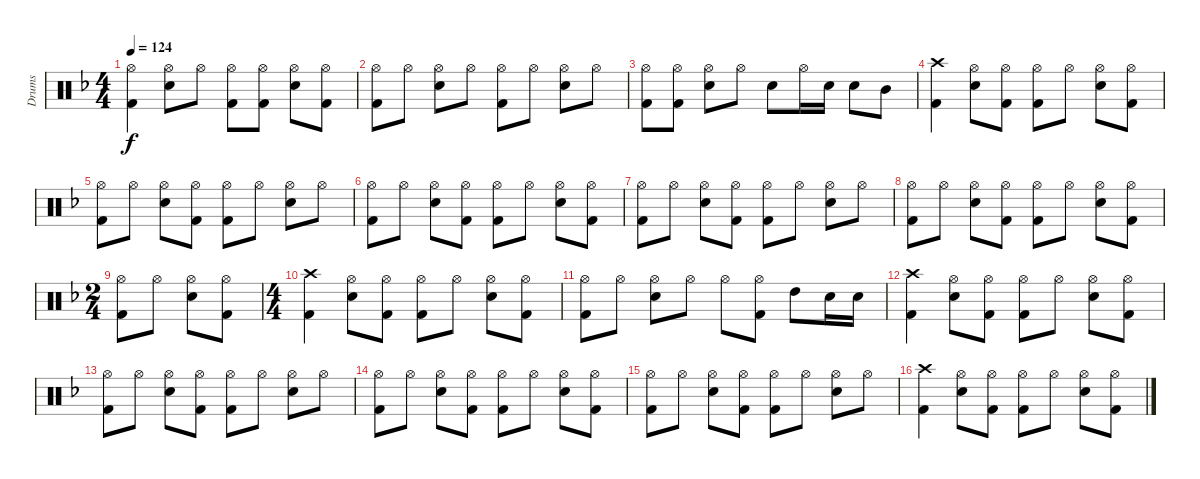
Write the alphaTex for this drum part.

\track ("Drums" "Drums") {instrument percussion}
\staff {score}
\articulation defaults
\ts (4 4)
\tempo 124
\clef neutral
\ks dminor
("Kick (hit) 2" "Hi-Hat (open)").4{dy f} ("Snare (hit) 2" "Hi-Hat (open)").8 "Hi-Hat (open)".8 ("Kick (hit) 2" "Hi-Hat (open)").8 ("Kick (hit) 2" "Hi-Hat (open)").8 ("Snare (hit) 2" "Hi-Hat (open)").8 ("Kick (hit) 2" "Hi-Hat (open)").8 |
("Kick (hit) 2" "Hi-Hat (open)").8 "Hi-Hat (open)".8 ("Snare (hit) 2" "Hi-Hat (open)").8 "Hi-Hat (open)".8 ("Kick (hit) 2" "Hi-Hat (open)").8 "Hi-Hat (open)".8 ("Snare (hit) 2" "Hi-Hat (open)").8 "Hi-Hat (open)".8 |
("Kick (hit) 2" "Hi-Hat (open)").8 ("Kick (hit) 2" "Hi-Hat (open)").8 ("Snare (hit) 2" "Hi-Hat (open)").8 "Hi-Hat (open)".8 "Snare (hit) 2".8 "Hi-Hat (open)".16 "Snare (hit) 2".16 "Snare (hit) 2".8 "Mid Tom (hit)".8 |
("Kick (hit) 2" "Crash high (hit)").4 ("Snare (hit) 2" "Hi-Hat (open)").8 ("Kick (hit) 2" "Hi-Hat (open)").8 ("Kick (hit) 2" "Hi-Hat (open)").8 "Hi-Hat (open)".8 ("Snare (hit) 2" "Hi-Hat (open)").8 ("Kick (hit) 2" "Hi-Hat (open)").8 |
("Kick (hit) 2" "Hi-Hat (open)").8 "Hi-Hat (open)".8 ("Snare (hit) 2" "Hi-Hat (open)").8 ("Kick (hit) 2" "Hi-Hat (open)").8 ("Kick (hit) 2" "Hi-Hat (open)").8 "Hi-Hat (open)".8 ("Snare (hit) 2" "Hi-Hat (open)").8 "Hi-Hat (open)".8 |
("Kick (hit) 2" "Hi-Hat (open)").8 "Hi-Hat (open)".8 ("Snare (hit) 2" "Hi-Hat (open)").8 ("Kick (hit) 2" "Hi-Hat (open)").8 ("Kick (hit) 2" "Hi-Hat (open)").8 "Hi-Hat (open)".8 ("Snare (hit) 2" "Hi-Hat (open)").8 ("Kick (hit) 2" "Hi-Hat (open)").8 |
("Kick (hit) 2" "Hi-Hat (open)").8 "Hi-Hat (open)".8 ("Snare (hit) 2" "Hi-Hat (open)").8 ("Kick (hit) 2" "Hi-Hat (open)").8 ("Kick (hit) 2" "Hi-Hat (open)").8 "Hi-Hat (open)".8 ("Snare (hit) 2" "Hi-Hat (open)").8 "Hi-Hat (open)".8 |
("Kick (hit) 2" "Hi-Hat (open)").8 "Hi-Hat (open)".8 ("Snare (hit) 2" "Hi-Hat (open)").8 ("Kick (hit) 2" "Hi-Hat (open)").8 ("Kick (hit) 2" "Hi-Hat (open)").8 "Hi-Hat (open)".8 ("Snare (hit) 2" "Hi-Hat (open)").8 ("Kick (hit) 2" "Hi-Hat (open)").8 |
\ts (2 4)
("Kick (hit) 2" "Hi-Hat (open)").8 "Hi-Hat (open)".8 ("Snare (hit) 2" "Hi-Hat (open)").8 ("Kick (hit) 2" "Hi-Hat (open)").8 |
\ts (4 4)
("Kick (hit) 2" "Crash high (hit)").4 ("Snare (hit) 2" "Hi-Hat (open)").8 ("Kick (hit) 2" "Hi-Hat (open)").8 ("Kick (hit) 2" "Hi-Hat (open)").8 "Hi-Hat (open)".8 ("Snare (hit) 2" "Hi-Hat (open)").8 ("Kick (hit) 2" "Hi-Hat (open)").8 |
("Kick (hit) 2" "Hi-Hat (open)").8 "Hi-Hat (open)".8 ("Snare (hit) 2" "Hi-Hat (open)").8 "Hi-Hat (open)".8 "Hi-Hat (open)".8 ("Kick (hit) 2" "Hi-Hat (open)").8 "High Tom (hit)".8 "Snare (hit) 2".16 "Snare (hit) 2".16 |
("Kick (hit) 2" "Crash high (hit)").4 ("Snare (hit) 2" "Hi-Hat (open)").8 ("Kick (hit) 2" "Hi-Hat (open)").8 ("Kick (hit) 2" "Hi-Hat (open)").8 "Hi-Hat (open)".8 ("Snare (hit) 2" "Hi-Hat (open)").8 ("Kick (hit) 2" "Hi-Hat (open)").8 |
("Kick (hit) 2" "Hi-Hat (open)").8 "Hi-Hat (open)".8 ("Snare (hit) 2" "Hi-Hat (open)").8 ("Kick (hit) 2" "Hi-Hat (open)").8 ("Kick (hit) 2" "Hi-Hat (open)").8 "Hi-Hat (open)".8 ("Snare (hit) 2" "Hi-Hat (open)").8 "Hi-Hat (open)".8 |
("Kick (hit) 2" "Hi-Hat (open)").8 "Hi-Hat (open)".8 ("Snare (hit) 2" "Hi-Hat (open)").8 ("Kick (hit) 2" "Hi-Hat (open)").8 ("Kick (hit) 2" "Hi-Hat (open)").8 "Hi-Hat (open)".8 ("Snare (hit) 2" "Hi-Hat (open)").8 ("Kick (hit) 2" "Hi-Hat (open)").8 |
("Kick (hit) 2" "Hi-Hat (open)").8 "Hi-Hat (open)".8 ("Snare (hit) 2" "Hi-Hat (open)").8 ("Kick (hit) 2" "Hi-Hat (open)").8 ("Kick (hit) 2" "Hi-Hat (open)").8 "Hi-Hat (open)".8 ("Snare (hit) 2" "Hi-Hat (open)").8 "Hi-Hat (open)".8 |
("Kick (hit) 2" "Crash high (hit)").4 ("Snare (hit) 2" "Hi-Hat (open)").8 ("Kick (hit) 2" "Hi-Hat (open)").8 ("Kick (hit) 2" "Hi-Hat (open)").8 "Hi-Hat (open)".8 ("Snare (hit) 2" "Hi-Hat (open)").8 ("Kick (hit) 2" "Hi-Hat (open)").8
